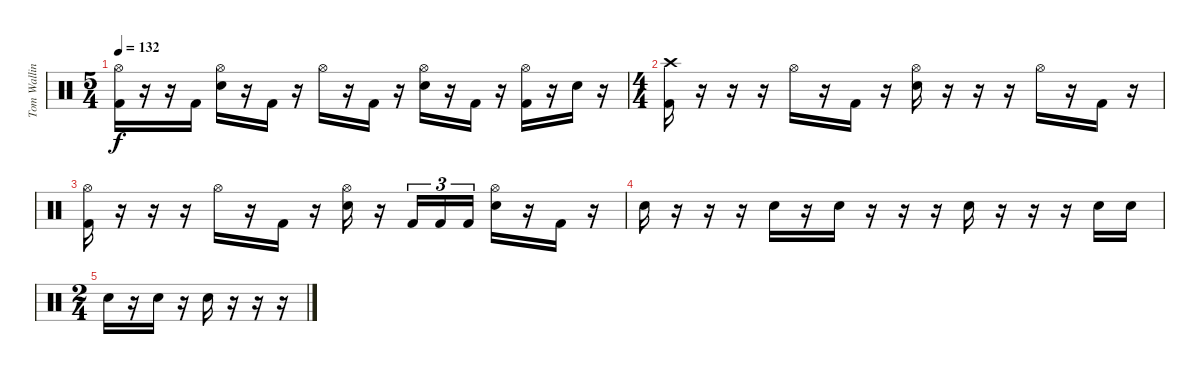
\track ("Tom Walling [Drums]" "Tom Wallin") {instrument percussion}
\staff {score}
\articulation defaults
\ts (5 4)
\tempo 132
\clef neutral
\ks c
("Hi-Hat (open)" "Kick (hit) 2").16{dy f} r.16 r.16 "Kick (hit) 2".16 ("Hi-Hat (open)" "Electric Snare (hit)").16 r.16 "Kick (hit) 2".16 r.16 "Hi-Hat (open)".16 r.16 "Kick (hit) 2".16 r.16 ("Hi-Hat (open)" "Electric Snare (hit)").16 r.16 "Kick (hit) 2".16 r.16 ("Hi-Hat (open)" "Kick (hit) 2").16 r.16 "Electric Snare (hit)".16 r.16 |
\ts (4 4)
("Crash high (hit)" "Kick (hit) 2").16 r.16 r.16 r.16 "Hi-Hat (open)".16 r.16 "Kick (hit) 2".16 r.16 ("Hi-Hat (open)" "Electric Snare (hit)").16 r.16 r.16 r.16 "Hi-Hat (open)".16 r.16 "Kick (hit) 2".16 r.16 |
("Hi-Hat (open)" "Kick (hit) 2").16 r.16 r.16 r.16 "Hi-Hat (open)".16 r.16 "Kick (hit) 2".16 r.16 ("Hi-Hat (open)" "Electric Snare (hit)").16 r.16 "Kick (hit) 2".16{tu (3 2)} "Kick (hit) 2".16{tu (3 2)} "Kick (hit) 2".16{tu (3 2)} ("Hi-Hat (open)" "Electric Snare (hit)").16 r.16 "Kick (hit) 2".16 r.16 |
"Electric Snare (hit)".16 r.16 r.16 r.16 "Electric Snare (hit)".16 r.16 "Electric Snare (hit)".16 r.16 r.16 r.16 "Electric Snare (hit)".16 r.16 r.16 r.16 "Electric Snare (hit)".16 "Electric Snare (hit)".16 |
\ts (2 4)
"Electric Snare (hit)".16 r.16 "Electric Snare (hit)".16 r.16 "Electric Snare (hit)".16 r.16 r.16 r.16
